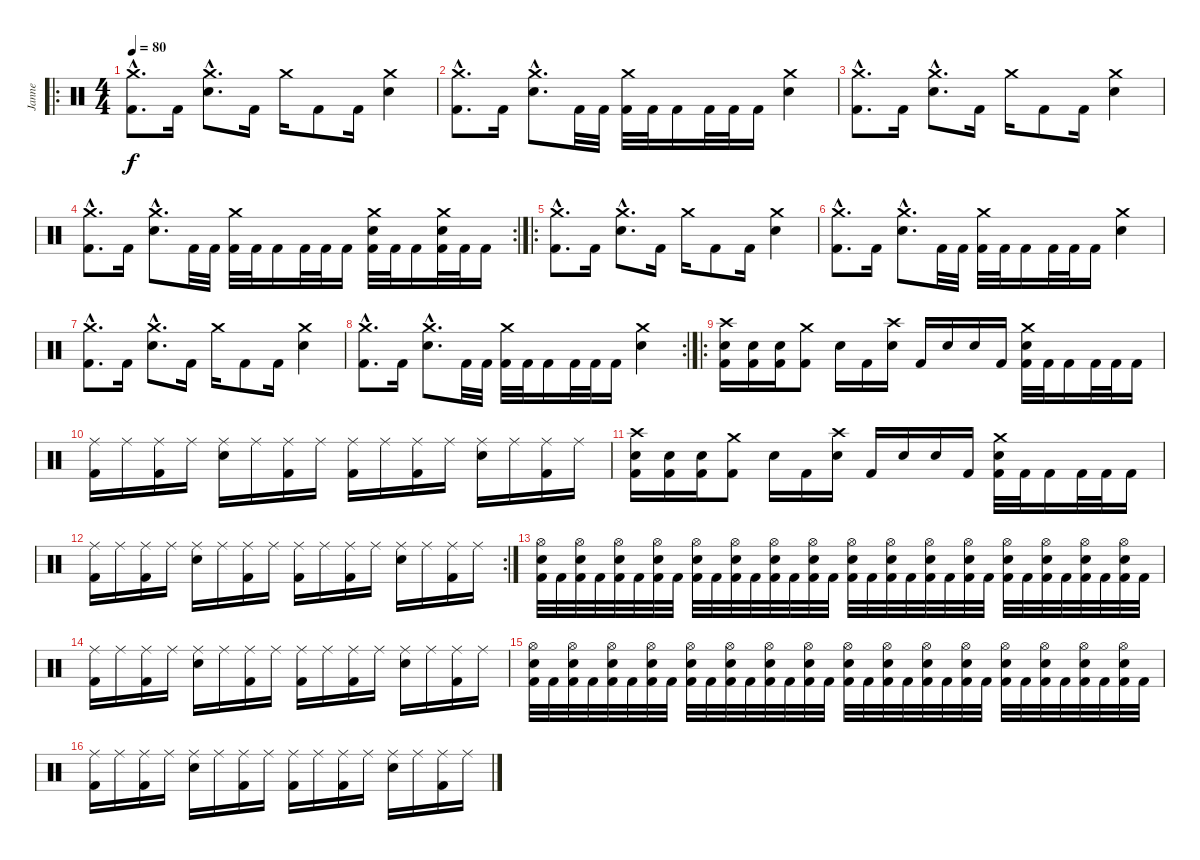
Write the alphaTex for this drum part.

\track ("Janne" "Janne") {instrument percussion}
\staff {score}
\articulation defaults
\ro
\ts (4 4)
\tempo 80
\clef neutral
\ks c
("Crash medium (hit)"{hac} "Kick (hit) 2"{hac}).8{d dy f} "Kick (hit) 2".16 ("Crash medium (hit)"{hac} "Electric Snare (hit)"{hac}).8{d} "Kick (hit) 2".16 "Crash medium (hit)".16 "Kick (hit) 2".8 "Kick (hit) 2".16 ("Crash medium (hit)" "Electric Snare (hit)").4 |
("Crash medium (hit)"{hac} "Kick (hit) 2"{hac}).8{d} "Kick (hit) 2".16 ("Crash medium (hit)"{hac} "Electric Snare (hit)"{hac}).8{d} "Kick (hit) 2".32 "Kick (hit) 2".32 ("Crash medium (hit)" "Kick (hit) 2").32 "Kick (hit) 2".32 "Kick (hit) 2".16 "Kick (hit) 2".32 "Kick (hit) 2".32 "Kick (hit) 2".16 ("Crash medium (hit)" "Electric Snare (hit)").4 |
("Crash medium (hit)"{hac} "Kick (hit) 2"{hac}).8{d} "Kick (hit) 2".16 ("Crash medium (hit)"{hac} "Electric Snare (hit)"{hac}).8{d} "Kick (hit) 2".16 "Crash medium (hit)".16 "Kick (hit) 2".8 "Kick (hit) 2".16 ("Crash medium (hit)" "Electric Snare (hit)").4 |
\rc 2
("Crash medium (hit)"{hac} "Kick (hit) 2"{hac}).8{d} "Kick (hit) 2".16 ("Crash medium (hit)"{hac} "Electric Snare (hit)"{hac}).8{d} "Kick (hit) 2".32 "Kick (hit) 2".32 ("Crash medium (hit)" "Kick (hit) 2").32 "Kick (hit) 2".32 "Kick (hit) 2".16 "Kick (hit) 2".32 "Kick (hit) 2".32 "Kick (hit) 2".16 ("Crash medium (hit)" "Electric Snare (hit)" "Kick (hit) 2").32 "Kick (hit) 2".32 "Kick (hit) 2".16 ("Crash medium (hit)" "Electric Snare (hit)" "Kick (hit) 2").32 "Kick (hit) 2".32 "Kick (hit) 2".16 |
\ro
("Crash medium (hit)"{hac} "Kick (hit) 2"{hac}).8{d} "Kick (hit) 2".16 ("Crash medium (hit)"{hac} "Electric Snare (hit)"{hac}).8{d} "Kick (hit) 2".16 "Crash medium (hit)".16 "Kick (hit) 2".8 "Kick (hit) 2".16 ("Crash medium (hit)" "Electric Snare (hit)").4 |
("Crash medium (hit)"{hac} "Kick (hit) 2"{hac}).8{d} "Kick (hit) 2".16 ("Crash medium (hit)"{hac} "Electric Snare (hit)"{hac}).8{d} "Kick (hit) 2".32 "Kick (hit) 2".32 ("Crash medium (hit)" "Kick (hit) 2").32 "Kick (hit) 2".32 "Kick (hit) 2".16 "Kick (hit) 2".32 "Kick (hit) 2".32 "Kick (hit) 2".16 ("Crash medium (hit)" "Electric Snare (hit)").4 |
("Crash medium (hit)"{hac} "Kick (hit) 2"{hac}).8{d} "Kick (hit) 2".16 ("Crash medium (hit)"{hac} "Electric Snare (hit)"{hac}).8{d} "Kick (hit) 2".16 "Crash medium (hit)".16 "Kick (hit) 2".8 "Kick (hit) 2".16 ("Crash medium (hit)" "Electric Snare (hit)").4 |
\rc 2
("Crash medium (hit)"{hac} "Kick (hit) 2"{hac}).8{d} "Kick (hit) 2".16 ("Crash medium (hit)"{hac} "Electric Snare (hit)"{hac}).8{d} "Kick (hit) 2".32 "Kick (hit) 2".32 ("Crash medium (hit)" "Kick (hit) 2").32 "Kick (hit) 2".32 "Kick (hit) 2".16 "Kick (hit) 2".32 "Kick (hit) 2".32 "Kick (hit) 2".16 ("Crash medium (hit)" "Electric Snare (hit)").4 |
\ro
("Crash high (hit)" "Electric Snare (hit)" "Kick (hit) 2").16 ("Electric Snare (hit)" "Kick (hit) 2").16 ("Electric Snare (hit)" "Kick (hit) 2").16 ("Crash medium (hit)" "Kick (hit) 2").8 "Electric Snare (hit)".16 "Kick (hit) 2".16 ("Crash high (hit)" "Electric Snare (hit)").16 "Kick (hit) 2".16 "Electric Snare (hit)".16 "Electric Snare (hit)".16 "Kick (hit) 2".16 ("Crash medium (hit)" "Electric Snare (hit)" "Kick (hit) 2").32 "Kick (hit) 2".32 "Kick (hit) 2".16 "Kick (hit) 2".32 "Kick (hit) 2".32 "Kick (hit) 2".16 |
("Ride (middle)" "Kick (hit) 2").16 "Ride (middle)".16 ("Ride (middle)" "Kick (hit) 2").16 "Ride (middle)".16 ("Ride (middle)" "Electric Snare (hit)").16 "Ride (middle)".16 ("Ride (middle)" "Kick (hit) 2").16 "Ride (middle)".16 ("Ride (middle)" "Kick (hit) 2").16 "Ride (middle)".16 ("Ride (middle)" "Kick (hit) 2").16 "Ride (middle)".16 ("Ride (middle)" "Electric Snare (hit)").16 "Ride (middle)".16 ("Ride (middle)" "Kick (hit) 2").16 "Ride (middle)".16 |
("Crash high (hit)" "Electric Snare (hit)" "Kick (hit) 2").16 ("Electric Snare (hit)" "Kick (hit) 2").16 ("Electric Snare (hit)" "Kick (hit) 2").16 ("Crash medium (hit)" "Kick (hit) 2").8 "Electric Snare (hit)".16 "Kick (hit) 2".16 ("Crash high (hit)" "Electric Snare (hit)").16 "Kick (hit) 2".16 "Electric Snare (hit)".16 "Electric Snare (hit)".16 "Kick (hit) 2".16 ("Crash medium (hit)" "Electric Snare (hit)" "Kick (hit) 2").32 "Kick (hit) 2".32 "Kick (hit) 2".16 "Kick (hit) 2".32 "Kick (hit) 2".32 "Kick (hit) 2".16 |
\rc 2
("Ride (middle)" "Kick (hit) 2").16 "Ride (middle)".16 ("Ride (middle)" "Kick (hit) 2").16 "Ride (middle)".16 ("Ride (middle)" "Electric Snare (hit)").16 "Ride (middle)".16 ("Ride (middle)" "Kick (hit) 2").16 "Ride (middle)".16 ("Ride (middle)" "Kick (hit) 2").16 "Ride (middle)".16 ("Ride (middle)" "Kick (hit) 2").16 "Ride (middle)".16 ("Ride (middle)" "Electric Snare (hit)").16 "Ride (middle)".16 ("Ride (middle)" "Kick (hit) 2").16 "Ride (middle)".16 |
("Hi-Hat (open)" "Electric Snare (hit)" "Kick (hit) 2").32 "Kick (hit) 2".32 ("Hi-Hat (open)" "Electric Snare (hit)" "Kick (hit) 2").32 "Kick (hit) 2".32 ("Hi-Hat (open)" "Electric Snare (hit)" "Kick (hit) 2").32 "Kick (hit) 2".32 ("Hi-Hat (open)" "Electric Snare (hit)" "Kick (hit) 2").32 "Kick (hit) 2".32 ("Hi-Hat (open)" "Electric Snare (hit)" "Kick (hit) 2").32 "Kick (hit) 2".32 ("Hi-Hat (open)" "Electric Snare (hit)" "Kick (hit) 2").32 "Kick (hit) 2".32 ("Hi-Hat (open)" "Electric Snare (hit)" "Kick (hit) 2").32 "Kick (hit) 2".32 ("Hi-Hat (open)" "Electric Snare (hit)" "Kick (hit) 2").32 "Kick (hit) 2".32 ("Hi-Hat (open)" "Electric Snare (hit)" "Kick (hit) 2").32 "Kick (hit) 2".32 ("Hi-Hat (open)" "Electric Snare (hit)" "Kick (hit) 2").32 "Kick (hit) 2".32 ("Hi-Hat (open)" "Electric Snare (hit)" "Kick (hit) 2").32 "Kick (hit) 2".32 ("Hi-Hat (open)" "Electric Snare (hit)" "Kick (hit) 2").32 "Kick (hit) 2".32 ("Hi-Hat (open)" "Electric Snare (hit)" "Kick (hit) 2").32 "Kick (hit) 2".32 ("Hi-Hat (open)" "Electric Snare (hit)" "Kick (hit) 2").32 "Kick (hit) 2".32 ("Hi-Hat (open)" "Electric Snare (hit)" "Kick (hit) 2").32 "Kick (hit) 2".32 ("Hi-Hat (open)" "Electric Snare (hit)" "Kick (hit) 2").32 "Kick (hit) 2".32 |
("Ride (middle)" "Kick (hit) 2").16 "Ride (middle)".16 ("Ride (middle)" "Kick (hit) 2").16 "Ride (middle)".16 ("Ride (middle)" "Electric Snare (hit)").16 "Ride (middle)".16 ("Ride (middle)" "Kick (hit) 2").16 "Ride (middle)".16 ("Ride (middle)" "Kick (hit) 2").16 "Ride (middle)".16 ("Ride (middle)" "Kick (hit) 2").16 "Ride (middle)".16 ("Ride (middle)" "Electric Snare (hit)").16 "Ride (middle)".16 ("Ride (middle)" "Kick (hit) 2").16 "Ride (middle)".16 |
("Hi-Hat (open)" "Electric Snare (hit)" "Kick (hit) 2").32 "Kick (hit) 2".32 ("Hi-Hat (open)" "Electric Snare (hit)" "Kick (hit) 2").32 "Kick (hit) 2".32 ("Hi-Hat (open)" "Electric Snare (hit)" "Kick (hit) 2").32 "Kick (hit) 2".32 ("Hi-Hat (open)" "Electric Snare (hit)" "Kick (hit) 2").32 "Kick (hit) 2".32 ("Hi-Hat (open)" "Electric Snare (hit)" "Kick (hit) 2").32 "Kick (hit) 2".32 ("Hi-Hat (open)" "Electric Snare (hit)" "Kick (hit) 2").32 "Kick (hit) 2".32 ("Hi-Hat (open)" "Electric Snare (hit)" "Kick (hit) 2").32 "Kick (hit) 2".32 ("Hi-Hat (open)" "Electric Snare (hit)" "Kick (hit) 2").32 "Kick (hit) 2".32 ("Hi-Hat (open)" "Electric Snare (hit)" "Kick (hit) 2").32 "Kick (hit) 2".32 ("Hi-Hat (open)" "Electric Snare (hit)" "Kick (hit) 2").32 "Kick (hit) 2".32 ("Hi-Hat (open)" "Electric Snare (hit)" "Kick (hit) 2").32 "Kick (hit) 2".32 ("Hi-Hat (open)" "Electric Snare (hit)" "Kick (hit) 2").32 "Kick (hit) 2".32 ("Hi-Hat (open)" "Electric Snare (hit)" "Kick (hit) 2").32 "Kick (hit) 2".32 ("Hi-Hat (open)" "Electric Snare (hit)" "Kick (hit) 2").32 "Kick (hit) 2".32 ("Hi-Hat (open)" "Electric Snare (hit)" "Kick (hit) 2").32 "Kick (hit) 2".32 ("Hi-Hat (open)" "Electric Snare (hit)" "Kick (hit) 2").32 "Kick (hit) 2".32 |
("Ride (middle)" "Kick (hit) 2").16 "Ride (middle)".16 ("Ride (middle)" "Kick (hit) 2").16 "Ride (middle)".16 ("Ride (middle)" "Electric Snare (hit)").16 "Ride (middle)".16 ("Ride (middle)" "Kick (hit) 2").16 "Ride (middle)".16 ("Ride (middle)" "Kick (hit) 2").16 "Ride (middle)".16 ("Ride (middle)" "Kick (hit) 2").16 "Ride (middle)".16 ("Ride (middle)" "Electric Snare (hit)").16 "Ride (middle)".16 ("Ride (middle)" "Kick (hit) 2").16 "Ride (middle)".16
